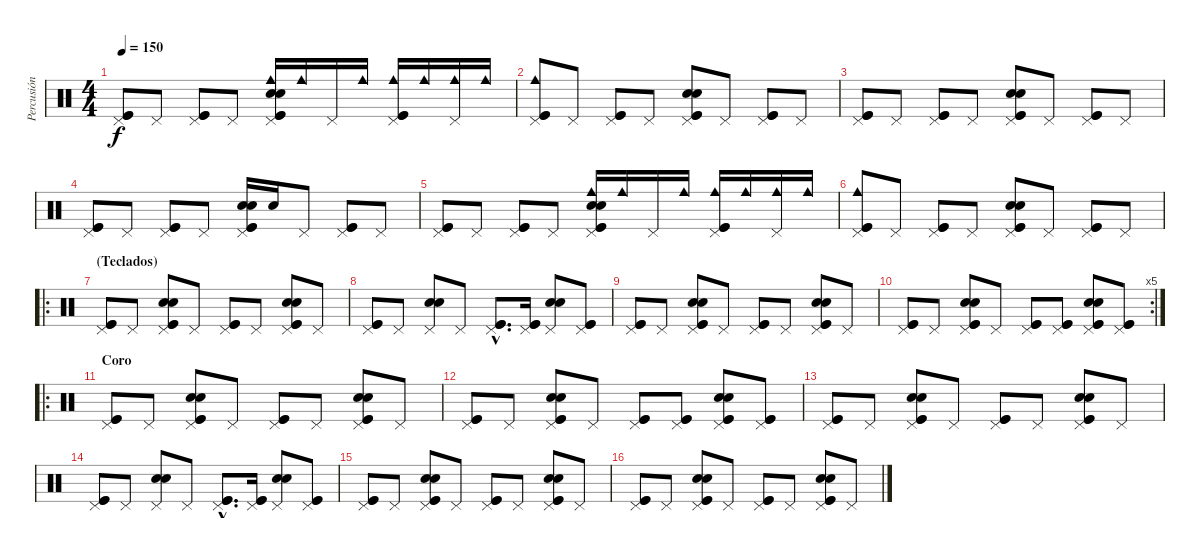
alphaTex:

\track ("Percusión" "Percusión") {instrument percussion}
\staff {score}
\articulation defaults
\ts (4 4)
\tempo 150
\clef neutral
\ks c
("Pedal Hi-Hat (hit)" "Kick (hit)" "Kick (hit)").8{dy f} "Pedal Hi-Hat (hit)".8 ("Pedal Hi-Hat (hit)" "Kick (hit)" "Kick (hit)").8 "Pedal Hi-Hat (hit)".8 ("Pedal Hi-Hat (hit)" "Cowbell medium (hit)" "Kick (hit)" "Kick (hit)" "Snare (hit) 2" "Snare (hit) 2").16 "Cowbell medium (hit)".16 "Pedal Hi-Hat (hit)".16 "Cowbell medium (hit)".16 ("Pedal Hi-Hat (hit)" "Cowbell medium (hit)" "Kick (hit)" "Kick (hit)").16 "Cowbell medium (hit)".16 ("Pedal Hi-Hat (hit)" "Cowbell medium (hit)").16 "Cowbell medium (hit)".16 |
("Pedal Hi-Hat (hit)" "Cowbell medium (hit)" "Kick (hit)" "Kick (hit)").8 "Pedal Hi-Hat (hit)".8 ("Pedal Hi-Hat (hit)" "Kick (hit)" "Kick (hit)").8 "Pedal Hi-Hat (hit)".8 ("Pedal Hi-Hat (hit)" "Kick (hit)" "Kick (hit)" "Snare (hit) 2" "Snare (hit) 2").8 "Pedal Hi-Hat (hit)".8 ("Pedal Hi-Hat (hit)" "Kick (hit)" "Kick (hit)").8 "Pedal Hi-Hat (hit)".8 |
("Pedal Hi-Hat (hit)" "Kick (hit)" "Kick (hit)").8 "Pedal Hi-Hat (hit)".8 ("Pedal Hi-Hat (hit)" "Kick (hit)" "Kick (hit)").8 "Pedal Hi-Hat (hit)".8 ("Pedal Hi-Hat (hit)" "Kick (hit)" "Kick (hit)" "Snare (hit) 2" "Snare (hit) 2").8 "Pedal Hi-Hat (hit)".8 ("Pedal Hi-Hat (hit)" "Kick (hit)" "Kick (hit)").8 "Pedal Hi-Hat (hit)".8 |
("Pedal Hi-Hat (hit)" "Kick (hit)" "Kick (hit)").8 "Pedal Hi-Hat (hit)".8 ("Pedal Hi-Hat (hit)" "Kick (hit)" "Kick (hit)").8 "Pedal Hi-Hat (hit)".8 ("Pedal Hi-Hat (hit)" "Kick (hit)" "Kick (hit)" "Snare (hit) 2" "Snare (hit) 2").16 "Snare (hit) 2".16 "Pedal Hi-Hat (hit)".8 ("Pedal Hi-Hat (hit)" "Kick (hit)" "Kick (hit)").8 "Pedal Hi-Hat (hit)".8 |
("Pedal Hi-Hat (hit)" "Kick (hit)" "Kick (hit)").8 "Pedal Hi-Hat (hit)".8 ("Pedal Hi-Hat (hit)" "Kick (hit)" "Kick (hit)").8 "Pedal Hi-Hat (hit)".8 ("Pedal Hi-Hat (hit)" "Cowbell medium (hit)" "Kick (hit)" "Kick (hit)" "Snare (hit) 2" "Snare (hit) 2").16 "Cowbell medium (hit)".16 "Pedal Hi-Hat (hit)".16 "Cowbell medium (hit)".16 ("Pedal Hi-Hat (hit)" "Cowbell medium (hit)" "Kick (hit)" "Kick (hit)").16 "Cowbell medium (hit)".16 ("Pedal Hi-Hat (hit)" "Cowbell medium (hit)").16 "Cowbell medium (hit)".16 |
("Pedal Hi-Hat (hit)" "Cowbell medium (hit)" "Kick (hit)" "Kick (hit)").8 "Pedal Hi-Hat (hit)".8 ("Pedal Hi-Hat (hit)" "Kick (hit)" "Kick (hit)").8 "Pedal Hi-Hat (hit)".8 ("Pedal Hi-Hat (hit)" "Kick (hit)" "Kick (hit)" "Snare (hit) 2" "Snare (hit) 2").8 "Pedal Hi-Hat (hit)".8 ("Pedal Hi-Hat (hit)" "Kick (hit)" "Kick (hit)").8 "Pedal Hi-Hat (hit)".8 |
\ro
\section ("" "(Teclados)")
("Pedal Hi-Hat (hit)" "Kick (hit)" "Kick (hit)").8 "Pedal Hi-Hat (hit)".8 ("Pedal Hi-Hat (hit)" "Snare (hit) 2" "Snare (hit) 2" "Kick (hit)" "Kick (hit)").8 "Pedal Hi-Hat (hit)".8 ("Pedal Hi-Hat (hit)" "Kick (hit)" "Kick (hit)").8 "Pedal Hi-Hat (hit)".8 ("Pedal Hi-Hat (hit)" "Snare (hit) 2" "Snare (hit) 2" "Kick (hit)" "Kick (hit)").8 "Pedal Hi-Hat (hit)".8 |
("Pedal Hi-Hat (hit)" "Kick (hit)" "Kick (hit)").8 "Pedal Hi-Hat (hit)".8 ("Pedal Hi-Hat (hit)" "Snare (hit) 2" "Snare (hit) 2").8 "Pedal Hi-Hat (hit)".8 ("Pedal Hi-Hat (hit)"{hac} "Kick (hit)"{hac} "Kick (hit)"{hac}).8{d} ("Pedal Hi-Hat (hit)" "Kick (hit)" "Kick (hit)").16 ("Pedal Hi-Hat (hit)" "Snare (hit) 2" "Snare (hit) 2").8 ("Pedal Hi-Hat (hit)" "Kick (hit)" "Kick (hit)").8 |
("Pedal Hi-Hat (hit)" "Kick (hit)" "Kick (hit)").8 "Pedal Hi-Hat (hit)".8 ("Pedal Hi-Hat (hit)" "Snare (hit) 2" "Snare (hit) 2" "Kick (hit)" "Kick (hit)").8 "Pedal Hi-Hat (hit)".8 ("Pedal Hi-Hat (hit)" "Kick (hit)" "Kick (hit)").8 "Pedal Hi-Hat (hit)".8 ("Pedal Hi-Hat (hit)" "Snare (hit) 2" "Snare (hit) 2" "Kick (hit)" "Kick (hit)").8 "Pedal Hi-Hat (hit)".8 |
\rc 5
("Pedal Hi-Hat (hit)" "Kick (hit)" "Kick (hit)").8 "Pedal Hi-Hat (hit)".8 ("Pedal Hi-Hat (hit)" "Snare (hit) 2" "Snare (hit) 2" "Kick (hit)" "Kick (hit)").8 "Pedal Hi-Hat (hit)".8 ("Pedal Hi-Hat (hit)" "Kick (hit)" "Kick (hit)").8 ("Pedal Hi-Hat (hit)" "Kick (hit)" "Kick (hit)").8 ("Pedal Hi-Hat (hit)" "Snare (hit) 2" "Snare (hit) 2" "Kick (hit)" "Kick (hit)").8 ("Pedal Hi-Hat (hit)" "Kick (hit)" "Kick (hit)").8 |
\ro
\section ("" "Coro")
("Pedal Hi-Hat (hit)" "Kick (hit)" "Kick (hit)").8 "Pedal Hi-Hat (hit)".8 ("Pedal Hi-Hat (hit)" "Snare (hit) 2" "Snare (hit) 2" "Kick (hit)" "Kick (hit)").8 "Pedal Hi-Hat (hit)".8 ("Pedal Hi-Hat (hit)" "Kick (hit)" "Kick (hit)").8 "Pedal Hi-Hat (hit)".8 ("Pedal Hi-Hat (hit)" "Snare (hit) 2" "Snare (hit) 2" "Kick (hit)" "Kick (hit)").8 "Pedal Hi-Hat (hit)".8 |
("Pedal Hi-Hat (hit)" "Kick (hit)" "Kick (hit)").8 "Pedal Hi-Hat (hit)".8 ("Pedal Hi-Hat (hit)" "Snare (hit) 2" "Snare (hit) 2" "Kick (hit)" "Kick (hit)").8 "Pedal Hi-Hat (hit)".8 ("Pedal Hi-Hat (hit)" "Kick (hit)" "Kick (hit)").8 ("Pedal Hi-Hat (hit)" "Kick (hit)" "Kick (hit)").8 ("Pedal Hi-Hat (hit)" "Snare (hit) 2" "Snare (hit) 2" "Kick (hit)" "Kick (hit)").8 ("Pedal Hi-Hat (hit)" "Kick (hit)" "Kick (hit)").8 |
("Pedal Hi-Hat (hit)" "Kick (hit)" "Kick (hit)").8 "Pedal Hi-Hat (hit)".8 ("Pedal Hi-Hat (hit)" "Snare (hit) 2" "Snare (hit) 2" "Kick (hit)" "Kick (hit)").8 "Pedal Hi-Hat (hit)".8 ("Pedal Hi-Hat (hit)" "Kick (hit)" "Kick (hit)").8 "Pedal Hi-Hat (hit)".8 ("Pedal Hi-Hat (hit)" "Snare (hit) 2" "Snare (hit) 2" "Kick (hit)" "Kick (hit)").8 "Pedal Hi-Hat (hit)".8 |
("Pedal Hi-Hat (hit)" "Kick (hit)" "Kick (hit)").8 "Pedal Hi-Hat (hit)".8 ("Pedal Hi-Hat (hit)" "Snare (hit) 2" "Snare (hit) 2").8 "Pedal Hi-Hat (hit)".8 ("Pedal Hi-Hat (hit)"{hac} "Kick (hit)"{hac} "Kick (hit)"{hac}).8{d} ("Pedal Hi-Hat (hit)" "Kick (hit)" "Kick (hit)").16 ("Pedal Hi-Hat (hit)" "Snare (hit) 2" "Snare (hit) 2").8 ("Pedal Hi-Hat (hit)" "Kick (hit)" "Kick (hit)").8 |
("Pedal Hi-Hat (hit)" "Kick (hit)" "Kick (hit)").8 "Pedal Hi-Hat (hit)".8 ("Pedal Hi-Hat (hit)" "Snare (hit) 2" "Snare (hit) 2" "Kick (hit)" "Kick (hit)").8 "Pedal Hi-Hat (hit)".8 ("Pedal Hi-Hat (hit)" "Kick (hit)" "Kick (hit)").8 "Pedal Hi-Hat (hit)".8 ("Pedal Hi-Hat (hit)" "Snare (hit) 2" "Snare (hit) 2" "Kick (hit)" "Kick (hit)").8 "Pedal Hi-Hat (hit)".8 |
("Pedal Hi-Hat (hit)" "Kick (hit)" "Kick (hit)").8 "Pedal Hi-Hat (hit)".8 ("Pedal Hi-Hat (hit)" "Snare (hit) 2" "Snare (hit) 2" "Kick (hit)" "Kick (hit)").8 "Pedal Hi-Hat (hit)".8 ("Pedal Hi-Hat (hit)" "Kick (hit)" "Kick (hit)").8 "Pedal Hi-Hat (hit)".8 ("Pedal Hi-Hat (hit)" "Snare (hit) 2" "Snare (hit) 2" "Kick (hit)" "Kick (hit)").8 "Pedal Hi-Hat (hit)".8
